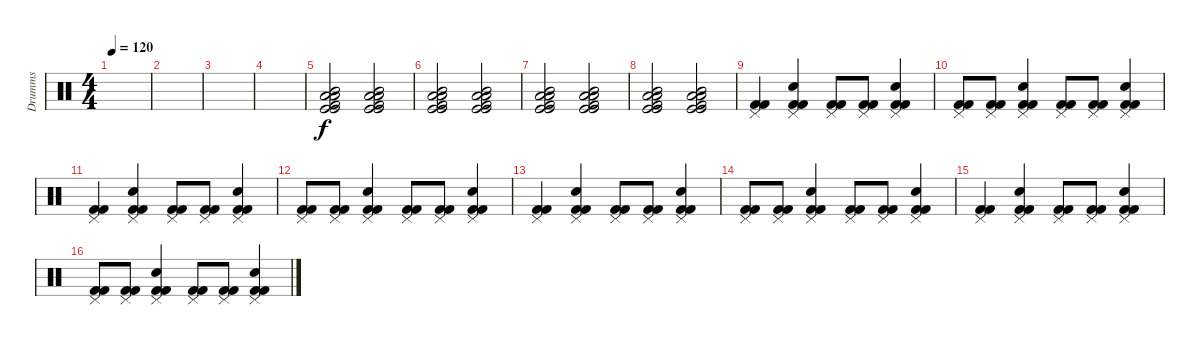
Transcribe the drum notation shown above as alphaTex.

\track ("Drumms" "Drumms") {instrument percussion}
\staff {score}
\articulation defaults
\ts (4 4)
\tempo 120
\clef neutral
\ks c
|
|
|
|
("Kick (hit)" "Kick (hit)" "Kick (hit) 2" "Mid Tom (hit)" "Low Tom (hit)" "Low Tom (hit)").2 ("Kick (hit)" "Kick (hit)" "Kick (hit) 2" "Mid Tom (hit)" "Low Tom (hit)" "Low Tom (hit)").2 |
("Kick (hit)" "Kick (hit)" "Kick (hit) 2" "Mid Tom (hit)" "Low Tom (hit)" "Low Tom (hit)").2 ("Kick (hit)" "Kick (hit)" "Kick (hit) 2" "Mid Tom (hit)" "Low Tom (hit)" "Low Tom (hit)").2 |
("Kick (hit)" "Kick (hit)" "Kick (hit) 2" "Mid Tom (hit)" "Low Tom (hit)" "Low Tom (hit)").2 ("Kick (hit)" "Kick (hit)" "Kick (hit) 2" "Mid Tom (hit)" "Low Tom (hit)" "Low Tom (hit)").2 |
("Kick (hit)" "Kick (hit)" "Kick (hit) 2" "Mid Tom (hit)" "Low Tom (hit)" "Low Tom (hit)").2 ("Kick (hit)" "Kick (hit)" "Kick (hit) 2" "Mid Tom (hit)" "Low Tom (hit)" "Low Tom (hit)").2 |
("Kick (hit) 2" "Kick (hit) 2" "Pedal Hi-Hat (hit)").4 ("Kick (hit) 2" "Kick (hit) 2" "Pedal Hi-Hat (hit)" "Electric Snare (hit)").4 ("Kick (hit) 2" "Kick (hit) 2" "Pedal Hi-Hat (hit)").8 ("Kick (hit) 2" "Kick (hit) 2" "Pedal Hi-Hat (hit)").8 ("Kick (hit) 2" "Kick (hit) 2" "Pedal Hi-Hat (hit)" "Electric Snare (hit)").4 |
("Kick (hit) 2" "Kick (hit) 2" "Pedal Hi-Hat (hit)").8 ("Kick (hit) 2" "Kick (hit) 2" "Pedal Hi-Hat (hit)").8 ("Kick (hit) 2" "Kick (hit) 2" "Pedal Hi-Hat (hit)" "Electric Snare (hit)").4 ("Kick (hit) 2" "Kick (hit) 2" "Pedal Hi-Hat (hit)").8 ("Kick (hit) 2" "Kick (hit) 2" "Pedal Hi-Hat (hit)").8 ("Kick (hit) 2" "Kick (hit) 2" "Pedal Hi-Hat (hit)" "Electric Snare (hit)").4 |
("Kick (hit) 2" "Kick (hit) 2" "Pedal Hi-Hat (hit)").4 ("Kick (hit) 2" "Kick (hit) 2" "Pedal Hi-Hat (hit)" "Electric Snare (hit)").4 ("Kick (hit) 2" "Kick (hit) 2" "Pedal Hi-Hat (hit)").8 ("Kick (hit) 2" "Kick (hit) 2" "Pedal Hi-Hat (hit)").8 ("Kick (hit) 2" "Kick (hit) 2" "Pedal Hi-Hat (hit)" "Electric Snare (hit)").4 |
("Kick (hit) 2" "Kick (hit) 2" "Pedal Hi-Hat (hit)").8 ("Kick (hit) 2" "Kick (hit) 2" "Pedal Hi-Hat (hit)").8 ("Kick (hit) 2" "Kick (hit) 2" "Pedal Hi-Hat (hit)" "Electric Snare (hit)").4 ("Kick (hit) 2" "Kick (hit) 2" "Pedal Hi-Hat (hit)").8 ("Kick (hit) 2" "Kick (hit) 2" "Pedal Hi-Hat (hit)").8 ("Kick (hit) 2" "Kick (hit) 2" "Pedal Hi-Hat (hit)" "Electric Snare (hit)").4 |
("Kick (hit) 2" "Kick (hit) 2" "Pedal Hi-Hat (hit)").4 ("Kick (hit) 2" "Kick (hit) 2" "Pedal Hi-Hat (hit)" "Electric Snare (hit)").4 ("Kick (hit) 2" "Kick (hit) 2" "Pedal Hi-Hat (hit)").8 ("Kick (hit) 2" "Kick (hit) 2" "Pedal Hi-Hat (hit)").8 ("Kick (hit) 2" "Kick (hit) 2" "Pedal Hi-Hat (hit)" "Electric Snare (hit)").4 |
("Kick (hit) 2" "Kick (hit) 2" "Pedal Hi-Hat (hit)").8 ("Kick (hit) 2" "Kick (hit) 2" "Pedal Hi-Hat (hit)").8 ("Kick (hit) 2" "Kick (hit) 2" "Pedal Hi-Hat (hit)" "Electric Snare (hit)").4 ("Kick (hit) 2" "Kick (hit) 2" "Pedal Hi-Hat (hit)").8 ("Kick (hit) 2" "Kick (hit) 2" "Pedal Hi-Hat (hit)").8 ("Kick (hit) 2" "Kick (hit) 2" "Pedal Hi-Hat (hit)" "Electric Snare (hit)").4 |
("Kick (hit) 2" "Kick (hit) 2" "Pedal Hi-Hat (hit)").4 ("Kick (hit) 2" "Kick (hit) 2" "Pedal Hi-Hat (hit)" "Electric Snare (hit)").4 ("Kick (hit) 2" "Kick (hit) 2" "Pedal Hi-Hat (hit)").8 ("Kick (hit) 2" "Kick (hit) 2" "Pedal Hi-Hat (hit)").8 ("Kick (hit) 2" "Kick (hit) 2" "Pedal Hi-Hat (hit)" "Electric Snare (hit)").4 |
("Kick (hit) 2" "Kick (hit) 2" "Pedal Hi-Hat (hit)").8 ("Kick (hit) 2" "Kick (hit) 2" "Pedal Hi-Hat (hit)").8 ("Kick (hit) 2" "Kick (hit) 2" "Pedal Hi-Hat (hit)" "Electric Snare (hit)").4 ("Kick (hit) 2" "Kick (hit) 2" "Pedal Hi-Hat (hit)").8 ("Kick (hit) 2" "Kick (hit) 2" "Pedal Hi-Hat (hit)").8 ("Kick (hit) 2" "Kick (hit) 2" "Pedal Hi-Hat (hit)" "Electric Snare (hit)").4
